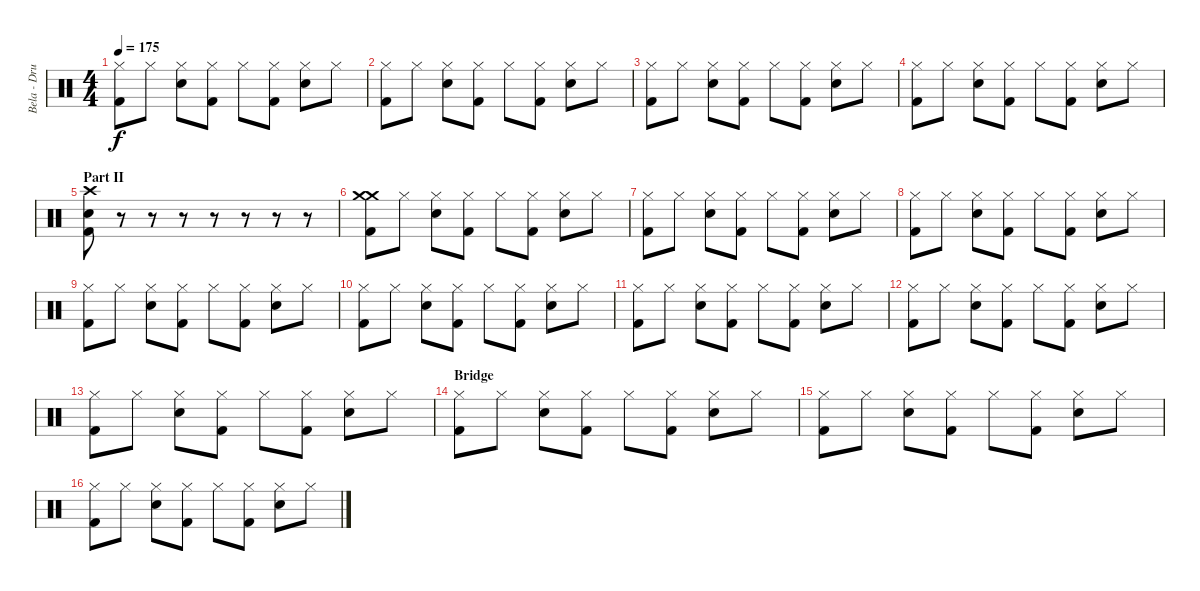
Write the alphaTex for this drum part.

\track ("Bela - Drums" "Bela - Dru") {instrument percussion}
\staff {score}
\articulation defaults
\ts (4 4)
\tempo 175
\clef neutral
\ks c
("Hi-Hat (closed)" "Kick (hit) 2").8{dy f} "Hi-Hat (closed)".8 ("Hi-Hat (closed)" "Electric Snare (hit)").8 ("Hi-Hat (closed)" "Kick (hit) 2").8 "Hi-Hat (closed)".8 ("Hi-Hat (closed)" "Kick (hit) 2").8 ("Hi-Hat (closed)" "Electric Snare (hit)").8 "Hi-Hat (closed)".8 |
("Hi-Hat (closed)" "Kick (hit) 2").8 "Hi-Hat (closed)".8 ("Hi-Hat (closed)" "Electric Snare (hit)").8 ("Hi-Hat (closed)" "Kick (hit) 2").8 "Hi-Hat (closed)".8 ("Hi-Hat (closed)" "Kick (hit) 2").8 ("Hi-Hat (closed)" "Electric Snare (hit)").8 "Hi-Hat (closed)".8 |
("Hi-Hat (closed)" "Kick (hit) 2").8 "Hi-Hat (closed)".8 ("Hi-Hat (closed)" "Electric Snare (hit)").8 ("Hi-Hat (closed)" "Kick (hit) 2").8 "Hi-Hat (closed)".8 ("Hi-Hat (closed)" "Kick (hit) 2").8 ("Hi-Hat (closed)" "Electric Snare (hit)").8 "Hi-Hat (closed)".8 |
("Hi-Hat (closed)" "Kick (hit) 2").8 "Hi-Hat (closed)".8 ("Hi-Hat (closed)" "Electric Snare (hit)").8 ("Hi-Hat (closed)" "Kick (hit) 2").8 "Hi-Hat (closed)".8 ("Hi-Hat (closed)" "Kick (hit) 2").8 ("Hi-Hat (closed)" "Electric Snare (hit)").8 "Hi-Hat (closed)".8 |
\section ("" "Part II")
("Crash high (hit)" "Electric Snare (hit)" "Kick (hit) 2").8 r.8 r.8 r.8 r.8 r.8 r.8 r.8 |
("Crash medium (hit)" "Crash medium (hit)" "Kick (hit) 2").8 "Hi-Hat (closed)".8 ("Hi-Hat (closed)" "Electric Snare (hit)").8 ("Hi-Hat (closed)" "Kick (hit) 2").8 "Hi-Hat (closed)".8 ("Hi-Hat (closed)" "Kick (hit) 2").8 ("Hi-Hat (closed)" "Electric Snare (hit)").8 "Hi-Hat (closed)".8 |
("Hi-Hat (closed)" "Kick (hit) 2").8 "Hi-Hat (closed)".8 ("Hi-Hat (closed)" "Electric Snare (hit)").8 ("Hi-Hat (closed)" "Kick (hit) 2").8 "Hi-Hat (closed)".8 ("Hi-Hat (closed)" "Kick (hit) 2").8 ("Hi-Hat (closed)" "Electric Snare (hit)").8 "Hi-Hat (closed)".8 |
("Hi-Hat (closed)" "Kick (hit) 2").8 "Hi-Hat (closed)".8 ("Hi-Hat (closed)" "Electric Snare (hit)").8 ("Hi-Hat (closed)" "Kick (hit) 2").8 "Hi-Hat (closed)".8 ("Hi-Hat (closed)" "Kick (hit) 2").8 ("Hi-Hat (closed)" "Electric Snare (hit)").8 "Hi-Hat (closed)".8 |
("Hi-Hat (closed)" "Kick (hit) 2").8 "Hi-Hat (closed)".8 ("Hi-Hat (closed)" "Electric Snare (hit)").8 ("Hi-Hat (closed)" "Kick (hit) 2").8 "Hi-Hat (closed)".8 ("Hi-Hat (closed)" "Kick (hit) 2").8 ("Hi-Hat (closed)" "Electric Snare (hit)").8 "Hi-Hat (closed)".8 |
("Hi-Hat (closed)" "Kick (hit) 2").8 "Hi-Hat (closed)".8 ("Hi-Hat (closed)" "Electric Snare (hit)").8 ("Hi-Hat (closed)" "Kick (hit) 2").8 "Hi-Hat (closed)".8 ("Hi-Hat (closed)" "Kick (hit) 2").8 ("Hi-Hat (closed)" "Electric Snare (hit)").8 "Hi-Hat (closed)".8 |
("Hi-Hat (closed)" "Kick (hit) 2").8 "Hi-Hat (closed)".8 ("Hi-Hat (closed)" "Electric Snare (hit)").8 ("Hi-Hat (closed)" "Kick (hit) 2").8 "Hi-Hat (closed)".8 ("Hi-Hat (closed)" "Kick (hit) 2").8 ("Hi-Hat (closed)" "Electric Snare (hit)").8 "Hi-Hat (closed)".8 |
("Hi-Hat (closed)" "Kick (hit) 2").8 "Hi-Hat (closed)".8 ("Hi-Hat (closed)" "Electric Snare (hit)").8 ("Hi-Hat (closed)" "Kick (hit) 2").8 "Hi-Hat (closed)".8 ("Hi-Hat (closed)" "Kick (hit) 2").8 ("Hi-Hat (closed)" "Electric Snare (hit)").8 "Hi-Hat (closed)".8 |
("Hi-Hat (closed)" "Kick (hit) 2").8 "Hi-Hat (closed)".8 ("Hi-Hat (closed)" "Electric Snare (hit)").8 ("Hi-Hat (closed)" "Kick (hit) 2").8 "Hi-Hat (closed)".8 ("Hi-Hat (closed)" "Kick (hit) 2").8 ("Hi-Hat (closed)" "Electric Snare (hit)").8 "Hi-Hat (closed)".8 |
\section ("" "Bridge")
("Hi-Hat (closed)" "Kick (hit) 2").8 "Hi-Hat (closed)".8 ("Hi-Hat (closed)" "Electric Snare (hit)").8 ("Hi-Hat (closed)" "Kick (hit) 2").8 "Hi-Hat (closed)".8 ("Hi-Hat (closed)" "Kick (hit) 2").8 ("Hi-Hat (closed)" "Electric Snare (hit)").8 "Hi-Hat (closed)".8 |
("Hi-Hat (closed)" "Kick (hit) 2").8 "Hi-Hat (closed)".8 ("Hi-Hat (closed)" "Electric Snare (hit)").8 ("Hi-Hat (closed)" "Kick (hit) 2").8 "Hi-Hat (closed)".8 ("Hi-Hat (closed)" "Kick (hit) 2").8 ("Hi-Hat (closed)" "Electric Snare (hit)").8 "Hi-Hat (closed)".8 |
("Hi-Hat (closed)" "Kick (hit) 2").8 "Hi-Hat (closed)".8 ("Hi-Hat (closed)" "Electric Snare (hit)").8 ("Hi-Hat (closed)" "Kick (hit) 2").8 "Hi-Hat (closed)".8 ("Hi-Hat (closed)" "Kick (hit) 2").8 ("Hi-Hat (closed)" "Electric Snare (hit)").8 "Hi-Hat (closed)".8
